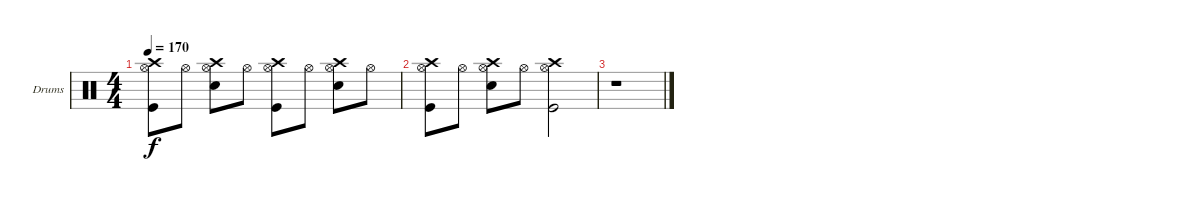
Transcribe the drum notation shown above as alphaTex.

\defaultSystemsLayout 4
\bracketExtendMode groupsimilarinstruments
\firstSystemTrackNameOrientation horizontal
\otherSystemsTrackNameOrientation horizontal
\track ("Барабаны" "Drums") {instrument percussion}
\staff {score}
\articulation defaults
\ts (4 4)
\tempo 170
\clef neutral
\ks c
("Kick (hit)" "Hi-Hat (open)" "Crash high (hit)").8{dy f} "Hi-Hat (open)".8 ("Snare (hit) 2" "Hi-Hat (open)" "Crash high (hit)").8 "Hi-Hat (open)".8 ("Kick (hit)" "Hi-Hat (open)" "Crash high (hit)").8 "Hi-Hat (open)".8 ("Snare (hit) 2" "Hi-Hat (open)" "Crash high (hit)").8 "Hi-Hat (open)".8 |
("Kick (hit)" "Hi-Hat (open)" "Crash high (hit)").8 "Hi-Hat (open)".8 ("Snare (hit) 2" "Hi-Hat (open)" "Crash high (hit)").8 "Hi-Hat (open)".8 ("Kick (hit)" "Hi-Hat (open)" "Crash high (hit)").2 |
r.1
